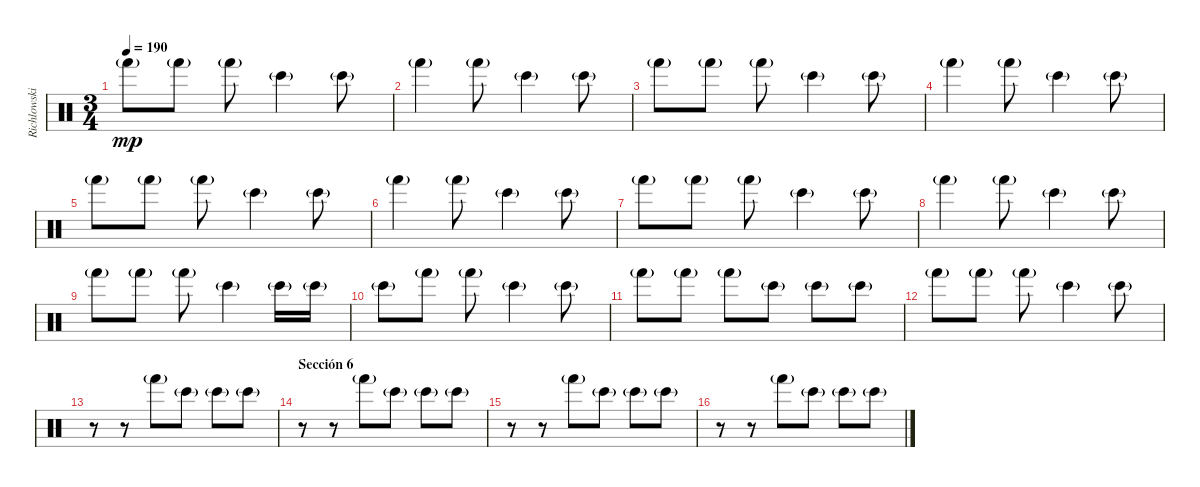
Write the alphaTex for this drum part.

\track ("Richlowski y Dj Raff" "Richlowski") {instrument percussion}
\staff {score}
\articulation defaults
\ts (3 4)
\tempo 190
\clef neutral
\ks c "Hand (hit)"{g}.8{dy mp} "Hand (hit)"{g}.8 "Hand (hit)"{g}.8 "Bongo High (hit)"{g}.4 "Bongo High (hit)"{g}.8
|
"Hand (hit)"{g}.4 "Hand (hit)"{g}.8 "Bongo High (hit)"{g}.4 "Bongo High (hit)"{g}.8 |
"Hand (hit)"{g}.8 "Hand (hit)"{g}.8 "Hand (hit)"{g}.8 "Bongo High (hit)"{g}.4 "Bongo High (hit)"{g}.8 |
"Hand (hit)"{g}.4 "Hand (hit)"{g}.8 "Bongo High (hit)"{g}.4 "Bongo High (hit)"{g}.8 |
"Hand (hit)"{g}.8 "Hand (hit)"{g}.8 "Hand (hit)"{g}.8 "Bongo High (hit)"{g}.4 "Bongo High (hit)"{g}.8 |
"Hand (hit)"{g}.4 "Hand (hit)"{g}.8 "Bongo High (hit)"{g}.4 "Bongo High (hit)"{g}.8 |
"Hand (hit)"{g}.8 "Hand (hit)"{g}.8 "Hand (hit)"{g}.8 "Bongo High (hit)"{g}.4 "Bongo High (hit)"{g}.8 |
"Hand (hit)"{g}.4 "Hand (hit)"{g}.8 "Bongo High (hit)"{g}.4 "Bongo High (hit)"{g}.8 |
"Hand (hit)"{g}.8 "Hand (hit)"{g}.8 "Hand (hit)"{g}.8 "Bongo High (hit)"{g}.4 "Bongo High (hit)"{g}.16 "Bongo High (hit)"{g}.16 |
"Bongo High (hit)"{g}.8 "Hand (hit)"{g}.8 "Hand (hit)"{g}.8 "Bongo High (hit)"{g}.4 "Bongo High (hit)"{g}.8 |
"Hand (hit)"{g}.8 "Hand (hit)"{g}.8 "Hand (hit)"{g}.8 "Bongo High (hit)"{g}.8 "Bongo High (hit)"{g}.8 "Bongo High (hit)"{g}.8 |
"Hand (hit)"{g}.8 "Hand (hit)"{g}.8 "Hand (hit)"{g}.8 "Bongo High (hit)"{g}.4 "Bongo High (hit)"{g}.8 |
r.8 r.8 "Hand (hit)"{g}.8 "Bongo High (hit)"{g}.8 "Bongo High (hit)"{g}.8 "Bongo High (hit)"{g}.8 |
\section ("" "Sección 6")
r.8 r.8 "Hand (hit)"{g}.8 "Bongo High (hit)"{g}.8 "Bongo High (hit)"{g}.8 "Bongo High (hit)"{g}.8 |
r.8 r.8 "Hand (hit)"{g}.8 "Bongo High (hit)"{g}.8 "Bongo High (hit)"{g}.8 "Bongo High (hit)"{g}.8 |
r.8 r.8 "Hand (hit)"{g}.8 "Bongo High (hit)"{g}.8 "Bongo High (hit)"{g}.8 "Bongo High (hit)"{g}.8
